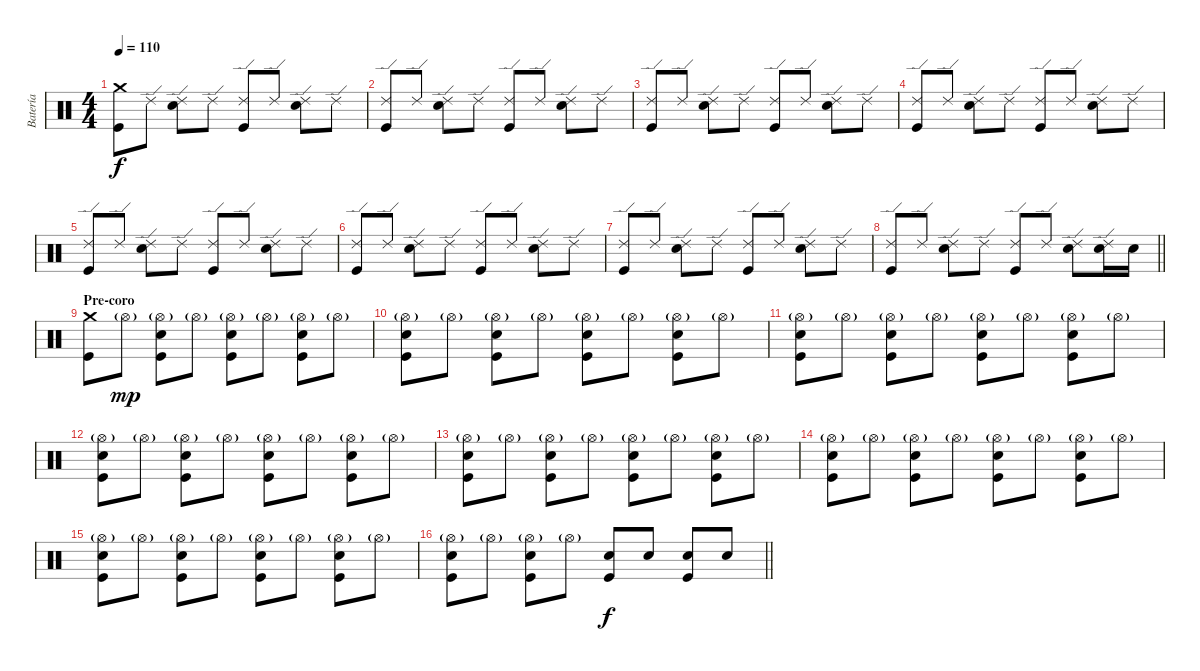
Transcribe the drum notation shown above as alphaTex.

\track ("Batería" "Batería") {instrument percussion}
\staff {score}
\articulation defaults
\ts (4 4)
\tempo 110
\clef neutral
\ks c
("Crash medium (hit)" "Kick (hit)").8{dy f} "Ride (edge) 2".8 ("Ride (edge) 2" "Snare (hit) 2").8 "Ride (edge) 2".8 ("Ride (edge) 2" "Kick (hit)").8 "Ride (edge) 2".8 ("Ride (edge) 2" "Snare (hit) 2").8 "Ride (edge) 2".8 |
("Ride (edge) 2" "Kick (hit)").8 "Ride (edge) 2".8 ("Ride (edge) 2" "Snare (hit) 2").8 "Ride (edge) 2".8 ("Ride (edge) 2" "Kick (hit)").8 "Ride (edge) 2".8 ("Ride (edge) 2" "Snare (hit) 2").8 "Ride (edge) 2".8 |
("Ride (edge) 2" "Kick (hit)").8 "Ride (edge) 2".8 ("Ride (edge) 2" "Snare (hit) 2").8 "Ride (edge) 2".8 ("Ride (edge) 2" "Kick (hit)").8 "Ride (edge) 2".8 ("Ride (edge) 2" "Snare (hit) 2").8 "Ride (edge) 2".8 |
("Ride (edge) 2" "Kick (hit)").8 "Ride (edge) 2".8 ("Ride (edge) 2" "Snare (hit) 2").8 "Ride (edge) 2".8 ("Ride (edge) 2" "Kick (hit)").8 "Ride (edge) 2".8 ("Ride (edge) 2" "Snare (hit) 2").8 "Ride (edge) 2".8 |
("Ride (edge) 2" "Kick (hit)").8 "Ride (edge) 2".8 ("Ride (edge) 2" "Snare (hit) 2").8 "Ride (edge) 2".8 ("Ride (edge) 2" "Kick (hit)").8 "Ride (edge) 2".8 ("Ride (edge) 2" "Snare (hit) 2").8 "Ride (edge) 2".8 |
("Ride (edge) 2" "Kick (hit)").8 "Ride (edge) 2".8 ("Ride (edge) 2" "Snare (hit) 2").8 "Ride (edge) 2".8 ("Ride (edge) 2" "Kick (hit)").8 "Ride (edge) 2".8 ("Ride (edge) 2" "Snare (hit) 2").8 "Ride (edge) 2".8 |
("Ride (edge) 2" "Kick (hit)").8 "Ride (edge) 2".8 ("Ride (edge) 2" "Snare (hit) 2").8 "Ride (edge) 2".8 ("Ride (edge) 2" "Kick (hit)").8 "Ride (edge) 2".8 ("Ride (edge) 2" "Snare (hit) 2").8 "Ride (edge) 2".8 |
\barLineRight lightlight
("Ride (edge) 2" "Kick (hit)").8 "Ride (edge) 2".8 ("Ride (edge) 2" "Snare (hit) 2").8 "Ride (edge) 2".8 ("Ride (edge) 2" "Kick (hit)").8 "Ride (edge) 2".8 ("Ride (edge) 2" "Snare (hit) 2").8 ("Ride (edge) 2" "Snare (hit) 2").16 "Snare (hit) 2".16 |
\section ("" "Pre-coro")
("Crash medium (hit)" "Kick (hit)").8 "Hi-Hat (open)"{g}.8{dy mp} ("Hi-Hat (open)"{g} "Snare (hit) 2" "Kick (hit)").8 "Hi-Hat (open)"{g}.8 ("Hi-Hat (open)"{g} "Snare (hit) 2" "Kick (hit)").8 "Hi-Hat (open)"{g}.8 ("Hi-Hat (open)"{g} "Snare (hit) 2" "Kick (hit)").8 "Hi-Hat (open)"{g}.8 |
("Hi-Hat (open)"{g} "Snare (hit) 2" "Kick (hit)").8 "Hi-Hat (open)"{g}.8 ("Hi-Hat (open)"{g} "Snare (hit) 2" "Kick (hit)").8 "Hi-Hat (open)"{g}.8 ("Hi-Hat (open)"{g} "Snare (hit) 2" "Kick (hit)").8 "Hi-Hat (open)"{g}.8 ("Hi-Hat (open)"{g} "Snare (hit) 2" "Kick (hit)").8 "Hi-Hat (open)"{g}.8 |
("Hi-Hat (open)"{g} "Snare (hit) 2" "Kick (hit)").8 "Hi-Hat (open)"{g}.8 ("Hi-Hat (open)"{g} "Snare (hit) 2" "Kick (hit)").8 "Hi-Hat (open)"{g}.8 ("Hi-Hat (open)"{g} "Snare (hit) 2" "Kick (hit)").8 "Hi-Hat (open)"{g}.8 ("Hi-Hat (open)"{g} "Snare (hit) 2" "Kick (hit)").8 "Hi-Hat (open)"{g}.8 |
("Hi-Hat (open)"{g} "Snare (hit) 2" "Kick (hit)").8 "Hi-Hat (open)"{g}.8 ("Hi-Hat (open)"{g} "Snare (hit) 2" "Kick (hit)").8 "Hi-Hat (open)"{g}.8 ("Hi-Hat (open)"{g} "Snare (hit) 2" "Kick (hit)").8 "Hi-Hat (open)"{g}.8 ("Hi-Hat (open)"{g} "Snare (hit) 2" "Kick (hit)").8 "Hi-Hat (open)"{g}.8 |
("Hi-Hat (open)"{g} "Snare (hit) 2" "Kick (hit)").8 "Hi-Hat (open)"{g}.8 ("Hi-Hat (open)"{g} "Snare (hit) 2" "Kick (hit)").8 "Hi-Hat (open)"{g}.8 ("Hi-Hat (open)"{g} "Snare (hit) 2" "Kick (hit)").8 "Hi-Hat (open)"{g}.8 ("Hi-Hat (open)"{g} "Snare (hit) 2" "Kick (hit)").8 "Hi-Hat (open)"{g}.8 |
("Hi-Hat (open)"{g} "Snare (hit) 2" "Kick (hit)").8 "Hi-Hat (open)"{g}.8 ("Hi-Hat (open)"{g} "Snare (hit) 2" "Kick (hit)").8 "Hi-Hat (open)"{g}.8 ("Hi-Hat (open)"{g} "Snare (hit) 2" "Kick (hit)").8 "Hi-Hat (open)"{g}.8 ("Hi-Hat (open)"{g} "Snare (hit) 2" "Kick (hit)").8 "Hi-Hat (open)"{g}.8 |
("Hi-Hat (open)"{g} "Snare (hit) 2" "Kick (hit)").8 "Hi-Hat (open)"{g}.8 ("Hi-Hat (open)"{g} "Snare (hit) 2" "Kick (hit)").8 "Hi-Hat (open)"{g}.8 ("Hi-Hat (open)"{g} "Snare (hit) 2" "Kick (hit)").8 "Hi-Hat (open)"{g}.8 ("Hi-Hat (open)"{g} "Snare (hit) 2" "Kick (hit)").8 "Hi-Hat (open)"{g}.8 |
\barLineRight lightlight
("Hi-Hat (open)"{g} "Snare (hit) 2" "Kick (hit)").8 "Hi-Hat (open)"{g}.8 ("Hi-Hat (open)"{g} "Snare (hit) 2" "Kick (hit)").8 "Hi-Hat (open)"{g}.8 ("Snare (hit) 2" "Kick (hit)").8{dy f} "Snare (hit) 2".8 ("Snare (hit) 2" "Kick (hit)").8 "Snare (hit) 2".8
